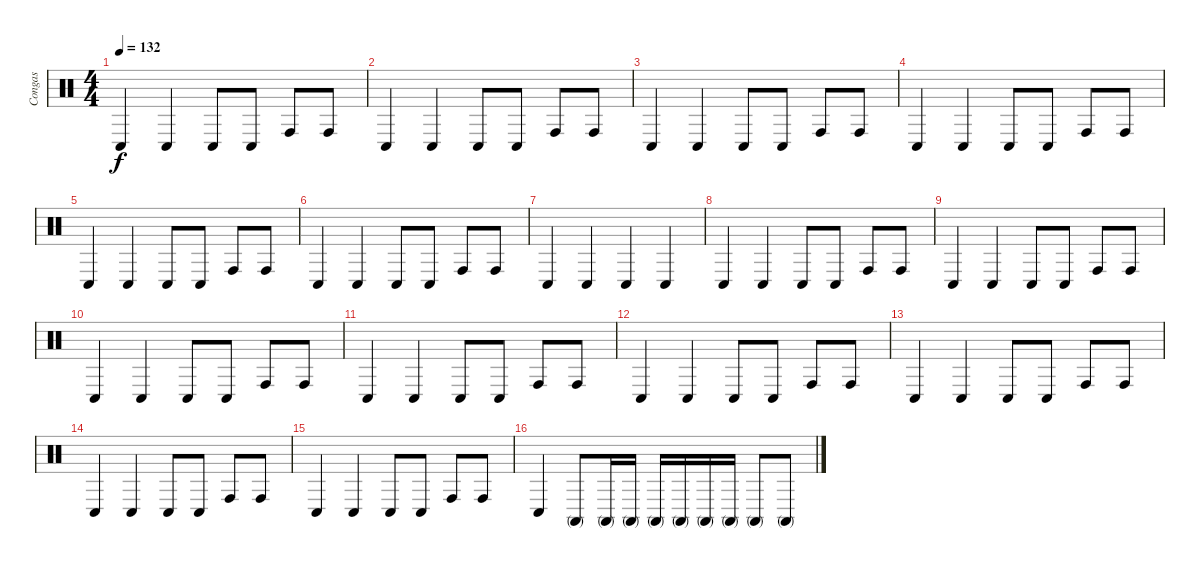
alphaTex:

\track ("Congas" "Congas") {instrument percussion}
\staff {score}
\articulation defaults
\ts (4 4)
\tempo 132
\clef neutral
\ks c "Conga low (hit)".4{dy f} "Conga low (hit)".4 "Conga low (hit)".8 "Conga low (hit)".8 "Conga high (hit)".8 "Conga high (hit)".8
|
"Conga low (hit)".4 "Conga low (hit)".4 "Conga low (hit)".8 "Conga low (hit)".8 "Conga high (hit)".8 "Conga high (hit)".8 |
"Conga low (hit)".4 "Conga low (hit)".4 "Conga low (hit)".8 "Conga low (hit)".8 "Conga high (hit)".8 "Conga high (hit)".8 |
"Conga low (hit)".4 "Conga low (hit)".4 "Conga low (hit)".8 "Conga low (hit)".8 "Conga high (hit)".8 "Conga high (hit)".8 |
"Conga low (hit)".4 "Conga low (hit)".4 "Conga low (hit)".8 "Conga low (hit)".8 "Conga high (hit)".8 "Conga high (hit)".8 |
"Conga low (hit)".4 "Conga low (hit)".4 "Conga low (hit)".8 "Conga low (hit)".8 "Conga high (hit)".8 "Conga high (hit)".8 |
"Conga low (hit)".4 "Conga low (hit)".4 "Conga low (hit)".4 "Conga low (hit)".4 |
"Conga low (hit)".4 "Conga low (hit)".4 "Conga low (hit)".8 "Conga low (hit)".8 "Conga high (hit)".8 "Conga high (hit)".8 |
"Conga low (hit)".4 "Conga low (hit)".4 "Conga low (hit)".8 "Conga low (hit)".8 "Conga high (hit)".8 "Conga high (hit)".8 |
"Conga low (hit)".4 "Conga low (hit)".4 "Conga low (hit)".8 "Conga low (hit)".8 "Conga high (hit)".8 "Conga high (hit)".8 |
"Conga low (hit)".4 "Conga low (hit)".4 "Conga low (hit)".8 "Conga low (hit)".8 "Conga high (hit)".8 "Conga high (hit)".8 |
"Conga low (hit)".4 "Conga low (hit)".4 "Conga low (hit)".8 "Conga low (hit)".8 "Conga high (hit)".8 "Conga high (hit)".8 |
"Conga low (hit)".4 "Conga low (hit)".4 "Conga low (hit)".8 "Conga low (hit)".8 "Conga high (hit)".8 "Conga high (hit)".8 |
"Conga low (hit)".4 "Conga low (hit)".4 "Conga low (hit)".8 "Conga low (hit)".8 "Conga high (hit)".8 "Conga high (hit)".8 |
"Conga low (hit)".4 "Conga low (hit)".4 "Conga low (hit)".8 "Conga low (hit)".8 "Conga high (hit)".8 "Conga high (hit)".8 |
"Conga low (hit)".4 "Conga high (mute)".8 "Conga high (mute)".16 "Conga high (mute)".16 "Conga high (mute)".16 "Conga high (mute)".16 "Conga high (mute)".16 "Conga high (mute)".16 "Conga high (mute)".8 "Conga high (mute)".8
